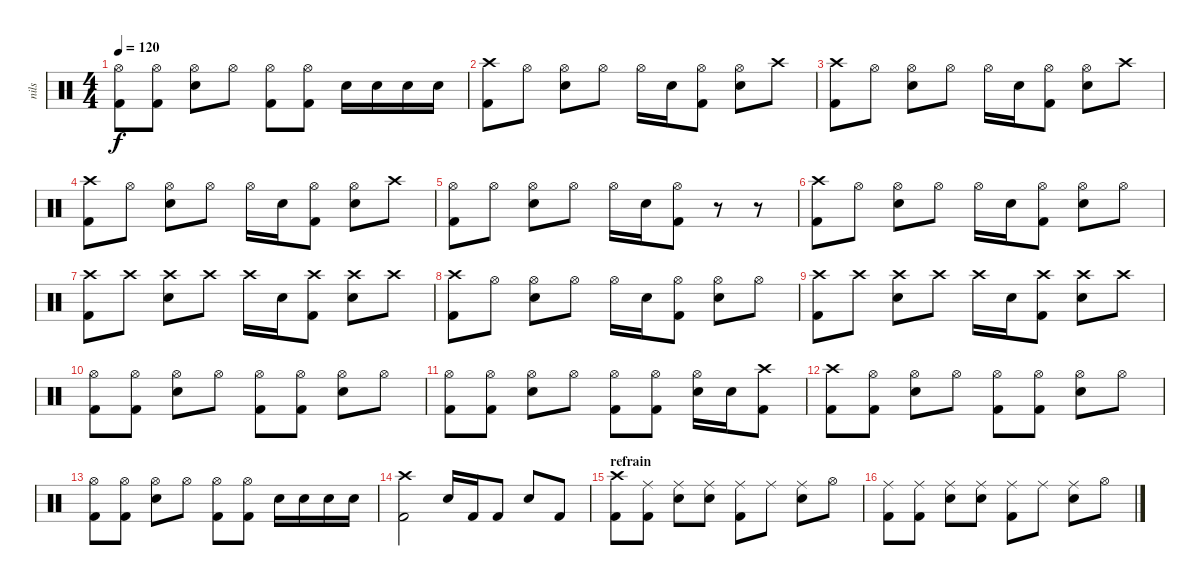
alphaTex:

\track ("nils" "nils") {instrument percussion}
\staff {score}
\articulation defaults
\ts (4 4)
\tempo 120
\clef neutral
\ks c
("Hi-Hat (open)" "Kick (hit) 2").8{dy f} ("Hi-Hat (open)" "Kick (hit) 2").8 ("Hi-Hat (open)" "Snare (hit) 2").8 "Hi-Hat (open)".8 ("Hi-Hat (open)" "Kick (hit) 2").8 ("Hi-Hat (open)" "Kick (hit) 2").8 "Snare (hit) 2".16 "Snare (hit) 2".16 "Snare (hit) 2".16 "Snare (hit) 2".16 |
("Crash high (hit)" "Kick (hit) 2").8 "Hi-Hat (open)".8 ("Hi-Hat (open)" "Snare (hit) 2").8 "Hi-Hat (open)".8 "Hi-Hat (open)".16 "Snare (hit) 2".16 ("Hi-Hat (open)" "Kick (hit) 2").8 ("Hi-Hat (open)" "Snare (hit) 2").8 "Crash high (hit)".8 |
("Crash high (hit)" "Kick (hit) 2").8 "Hi-Hat (open)".8 ("Hi-Hat (open)" "Snare (hit) 2").8 "Hi-Hat (open)".8 "Hi-Hat (open)".16 "Snare (hit) 2".16 ("Hi-Hat (open)" "Kick (hit) 2").8 ("Hi-Hat (open)" "Snare (hit) 2").8 "Crash high (hit)".8 |
("Crash high (hit)" "Kick (hit) 2").8 "Hi-Hat (open)".8 ("Hi-Hat (open)" "Snare (hit) 2").8 "Hi-Hat (open)".8 "Hi-Hat (open)".16 "Snare (hit) 2".16 ("Hi-Hat (open)" "Kick (hit) 2").8 ("Hi-Hat (open)" "Snare (hit) 2").8 "Crash high (hit)".8 |
("Hi-Hat (open)" "Kick (hit) 2").8 "Hi-Hat (open)".8 ("Hi-Hat (open)" "Snare (hit) 2").8 "Hi-Hat (open)".8 "Hi-Hat (open)".16 "Snare (hit) 2".16 ("Hi-Hat (open)" "Kick (hit) 2").8 r.8 r.8 |
("Crash high (hit)" "Kick (hit) 2").8 "Hi-Hat (open)".8 ("Hi-Hat (open)" "Snare (hit) 2").8 "Hi-Hat (open)".8 "Hi-Hat (open)".16 "Snare (hit) 2".16 ("Hi-Hat (open)" "Kick (hit) 2").8 ("Hi-Hat (open)" "Snare (hit) 2").8 "Hi-Hat (open)".8 |
("Crash high (hit)" "Kick (hit) 2").8 "Crash high (hit)".8 ("Crash high (hit)" "Snare (hit) 2").8 "Crash high (hit)".8 "Crash high (hit)".16 "Snare (hit) 2".16 ("Crash high (hit)" "Kick (hit) 2").8 ("Crash high (hit)" "Snare (hit) 2").8 "Crash high (hit)".8 |
("Crash high (hit)" "Kick (hit) 2").8 "Hi-Hat (open)".8 ("Hi-Hat (open)" "Snare (hit) 2").8 "Hi-Hat (open)".8 "Hi-Hat (open)".16 "Snare (hit) 2".16 ("Hi-Hat (open)" "Kick (hit) 2").8 ("Hi-Hat (open)" "Snare (hit) 2").8 "Hi-Hat (open)".8 |
("Crash high (hit)" "Kick (hit) 2").8 "Crash high (hit)".8 ("Crash high (hit)" "Snare (hit) 2").8 "Crash high (hit)".8 "Crash high (hit)".16 "Snare (hit) 2".16 ("Crash high (hit)" "Kick (hit) 2").8 ("Crash high (hit)" "Snare (hit) 2").8 "Crash high (hit)".8 |
("Hi-Hat (open)" "Kick (hit) 2").8 ("Hi-Hat (open)" "Kick (hit) 2").8 ("Hi-Hat (open)" "Snare (hit) 2").8 "Hi-Hat (open)".8 ("Hi-Hat (open)" "Kick (hit) 2").8 ("Hi-Hat (open)" "Kick (hit) 2").8 ("Hi-Hat (open)" "Snare (hit) 2").8 "Hi-Hat (open)".8 |
("Hi-Hat (open)" "Kick (hit) 2").8 ("Hi-Hat (open)" "Kick (hit) 2").8 ("Hi-Hat (open)" "Snare (hit) 2").8 "Hi-Hat (open)".8 ("Hi-Hat (open)" "Kick (hit) 2").8 ("Hi-Hat (open)" "Kick (hit) 2").8 ("Hi-Hat (open)" "Snare (hit) 2").16 "Snare (hit) 2".16 ("Crash high (hit)" "Kick (hit) 2").8 |
("Crash high (hit)" "Kick (hit) 2").8 ("Hi-Hat (open)" "Kick (hit) 2").8 ("Hi-Hat (open)" "Snare (hit) 2").8 "Hi-Hat (open)".8 ("Hi-Hat (open)" "Kick (hit) 2").8 ("Hi-Hat (open)" "Kick (hit) 2").8 ("Hi-Hat (open)" "Snare (hit) 2").8 "Hi-Hat (open)".8 |
("Hi-Hat (open)" "Kick (hit) 2").8 ("Hi-Hat (open)" "Kick (hit) 2").8 ("Hi-Hat (open)" "Snare (hit) 2").8 "Hi-Hat (open)".8 ("Hi-Hat (open)" "Kick (hit) 2").8 ("Hi-Hat (open)" "Kick (hit) 2").8 "Snare (hit) 2".16 "Snare (hit) 2".16 "Snare (hit) 2".16 "Snare (hit) 2".16 |
("Crash high (hit)" "Kick (hit) 2").2 "Snare (hit) 2".16 "Kick (hit) 2".16 "Kick (hit) 2".8 "Snare (hit) 2".8 "Kick (hit) 2".8 |
\section ("" "refrain")
("Crash high (hit)" "Kick (hit) 2").8 ("Ride (middle)" "Kick (hit) 2").8 ("Ride (middle)" "Snare (hit) 2").8 ("Ride (middle)" "Snare (hit) 2").8 ("Ride (middle)" "Kick (hit) 2").8 "Ride (middle)".8 ("Ride (middle)" "Snare (hit) 2").8 "Hi-Hat (open)".8 |
("Ride (middle)" "Kick (hit) 2").8 ("Ride (middle)" "Kick (hit) 2").8 ("Ride (middle)" "Snare (hit) 2").8 ("Ride (middle)" "Snare (hit) 2").8 ("Ride (middle)" "Kick (hit) 2").8 "Ride (middle)".8 ("Ride (middle)" "Snare (hit) 2").8 "Hi-Hat (open)".8
